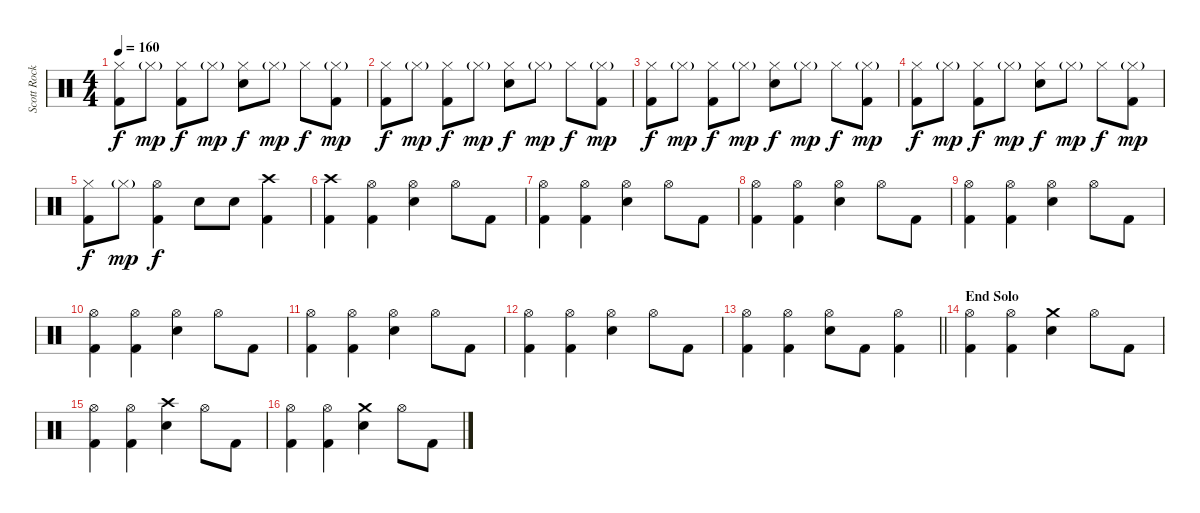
\track ("Scott Rockenfield" "Scott Rock") {instrument percussion}
\staff {score}
\articulation defaults
\ts (4 4)
\tempo 160
\clef neutral
\ks c
("Hi-Hat (closed)" "Kick (hit) 2").8{dy f} "Hi-Hat (closed)"{g}.8{dy mp} ("Hi-Hat (closed)" "Kick (hit) 2").8{dy f} "Hi-Hat (closed)"{g}.8{dy mp} ("Hi-Hat (closed)" "Electric Snare (hit)").8{dy f} "Hi-Hat (closed)"{g}.8{dy mp} "Hi-Hat (closed)".8{dy f} ("Hi-Hat (closed)"{g} "Kick (hit) 2").8{dy mp} |
("Hi-Hat (closed)" "Kick (hit) 2").8{dy f} "Hi-Hat (closed)"{g}.8{dy mp} ("Hi-Hat (closed)" "Kick (hit) 2").8{dy f} "Hi-Hat (closed)"{g}.8{dy mp} ("Hi-Hat (closed)" "Electric Snare (hit)").8{dy f} "Hi-Hat (closed)"{g}.8{dy mp} "Hi-Hat (closed)".8{dy f} ("Hi-Hat (closed)"{g} "Kick (hit) 2").8{dy mp} |
("Hi-Hat (closed)" "Kick (hit) 2").8{dy f} "Hi-Hat (closed)"{g}.8{dy mp} ("Hi-Hat (closed)" "Kick (hit) 2").8{dy f} "Hi-Hat (closed)"{g}.8{dy mp} ("Hi-Hat (closed)" "Electric Snare (hit)").8{dy f} "Hi-Hat (closed)"{g}.8{dy mp} "Hi-Hat (closed)".8{dy f} ("Hi-Hat (closed)"{g} "Kick (hit) 2").8{dy mp} |
("Hi-Hat (closed)" "Kick (hit) 2").8{dy f} "Hi-Hat (closed)"{g}.8{dy mp} ("Hi-Hat (closed)" "Kick (hit) 2").8{dy f} "Hi-Hat (closed)"{g}.8{dy mp} ("Hi-Hat (closed)" "Electric Snare (hit)").8{dy f} "Hi-Hat (closed)"{g}.8{dy mp} "Hi-Hat (closed)".8{dy f} ("Hi-Hat (closed)"{g} "Kick (hit) 2").8{dy mp} |
("Hi-Hat (closed)" "Kick (hit) 2").8{dy f} "Hi-Hat (closed)"{g}.8{dy mp} ("Hi-Hat (open)" "Kick (hit) 2").4{dy f} "Electric Snare (hit)".8 "Electric Snare (hit)".8 ("Crash high (hit)" "Kick (hit) 2").4 |
("Crash high (hit)" "Kick (hit) 2").4 ("Hi-Hat (open)" "Kick (hit) 2").4 ("Hi-Hat (open)" "Electric Snare (hit)").4 "Hi-Hat (open)".8 "Kick (hit) 2".8 |
("Hi-Hat (open)" "Kick (hit) 2").4 ("Hi-Hat (open)" "Kick (hit) 2").4 ("Hi-Hat (open)" "Electric Snare (hit)").4 "Hi-Hat (open)".8 "Kick (hit) 2".8 |
("Hi-Hat (open)" "Kick (hit) 2").4 ("Hi-Hat (open)" "Kick (hit) 2").4 ("Hi-Hat (open)" "Electric Snare (hit)").4 "Hi-Hat (open)".8 "Kick (hit) 2".8 |
("Hi-Hat (open)" "Kick (hit) 2").4 ("Hi-Hat (open)" "Kick (hit) 2").4 ("Hi-Hat (open)" "Electric Snare (hit)").4 "Hi-Hat (open)".8 "Kick (hit) 2".8 |
("Hi-Hat (open)" "Kick (hit) 2").4 ("Hi-Hat (open)" "Kick (hit) 2").4 ("Hi-Hat (open)" "Electric Snare (hit)").4 "Hi-Hat (open)".8 "Kick (hit) 2".8 |
("Hi-Hat (open)" "Kick (hit) 2").4 ("Hi-Hat (open)" "Kick (hit) 2").4 ("Hi-Hat (open)" "Electric Snare (hit)").4 "Hi-Hat (open)".8 "Kick (hit) 2".8 |
("Hi-Hat (open)" "Kick (hit) 2").4 ("Hi-Hat (open)" "Kick (hit) 2").4 ("Hi-Hat (open)" "Electric Snare (hit)").4 "Hi-Hat (open)".8 "Kick (hit) 2".8 |
\barLineRight lightlight
("Hi-Hat (open)" "Kick (hit) 2").4 ("Hi-Hat (open)" "Kick (hit) 2").4 ("Hi-Hat (open)" "Electric Snare (hit)").8 "Kick (hit) 2".8 ("Hi-Hat (open)" "Kick (hit) 2").4 |
\section ("" "End Solo")
("Hi-Hat (open)" "Kick (hit) 2").4 ("Hi-Hat (open)" "Kick (hit) 2").4 ("Crash medium (hit)" "Electric Snare (hit)").4 "Hi-Hat (open)".8 "Kick (hit) 2".8 |
("Hi-Hat (open)" "Kick (hit) 2").4 ("Hi-Hat (open)" "Kick (hit) 2").4 ("Crash high (hit)" "Electric Snare (hit)").4 "Hi-Hat (open)".8 "Kick (hit) 2".8 |
("Hi-Hat (open)" "Kick (hit) 2").4 ("Hi-Hat (open)" "Kick (hit) 2").4 ("Crash medium (hit)" "Electric Snare (hit)").4 "Hi-Hat (open)".8 "Kick (hit) 2".8
